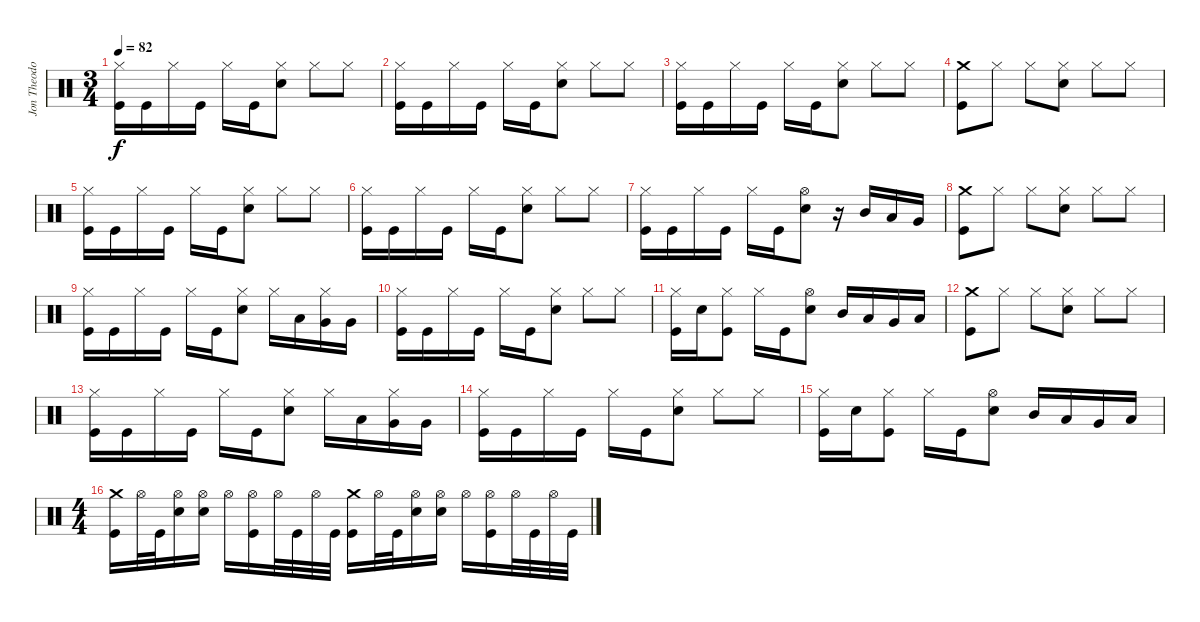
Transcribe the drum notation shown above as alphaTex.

\track ("Jon Theodore - Drums" "Jon Theodo") {instrument percussion}
\staff {score}
\articulation defaults
\ts (3 4)
\tempo 82
\clef neutral
\ks c
("Hi-Hat (closed)" "Kick (hit)").16{dy f} "Kick (hit)".16 "Hi-Hat (closed)".16 "Kick (hit)".16 "Hi-Hat (closed)".16 "Kick (hit)".16 ("Hi-Hat (closed)" "Snare (hit) 2").8 "Hi-Hat (closed)".8 "Hi-Hat (closed)".8 |
("Hi-Hat (closed)" "Kick (hit)").16 "Kick (hit)".16 "Hi-Hat (closed)".16 "Kick (hit)".16 "Hi-Hat (closed)".16 "Kick (hit)".16 ("Hi-Hat (closed)" "Snare (hit) 2").8 "Hi-Hat (closed)".8 "Hi-Hat (closed)".8 |
("Hi-Hat (closed)" "Kick (hit)").16 "Kick (hit)".16 "Hi-Hat (closed)".16 "Kick (hit)".16 "Hi-Hat (closed)".16 "Kick (hit)".16 ("Hi-Hat (closed)" "Snare (hit) 2").8 "Hi-Hat (closed)".8 "Hi-Hat (closed)".8 |
("Crash medium (hit)" "Kick (hit)").8 "Hi-Hat (closed)".8 "Hi-Hat (closed)".8 ("Hi-Hat (closed)" "Snare (hit) 2").8 "Hi-Hat (closed)".8 "Hi-Hat (closed)".8 |
("Hi-Hat (closed)" "Kick (hit)").16 "Kick (hit)".16 "Hi-Hat (closed)".16 "Kick (hit)".16 "Hi-Hat (closed)".16 "Kick (hit)".16 ("Hi-Hat (closed)" "Snare (hit) 2").8 "Hi-Hat (closed)".8 "Hi-Hat (closed)".8 |
("Hi-Hat (closed)" "Kick (hit)").16 "Kick (hit)".16 "Hi-Hat (closed)".16 "Kick (hit)".16 "Hi-Hat (closed)".16 "Kick (hit)".16 ("Hi-Hat (closed)" "Snare (hit) 2").8 "Hi-Hat (closed)".8 "Hi-Hat (closed)".8 |
("Hi-Hat (closed)" "Kick (hit)").16 "Kick (hit)".16 "Hi-Hat (closed)".16 "Kick (hit)".16 "Hi-Hat (closed)".16 "Kick (hit)".16 ("Hi-Hat (open)" "Snare (hit) 2").8 r.16 "Mid Tom (hit)".16 "Low Tom (hit)".16 "Very Low Tom (hit)".16 |
("Crash medium (hit)" "Kick (hit)").8 "Hi-Hat (closed)".8 "Hi-Hat (closed)".8 ("Hi-Hat (closed)" "Snare (hit) 2").8 "Hi-Hat (closed)".8 "Hi-Hat (closed)".8 |
("Hi-Hat (closed)" "Kick (hit)").16 "Kick (hit)".16 "Hi-Hat (closed)".16 "Kick (hit)".16 "Hi-Hat (closed)".16 "Kick (hit)".16 ("Hi-Hat (closed)" "Snare (hit) 2").8 "Hi-Hat (closed)".16 "Low Tom (hit)".16 ("Hi-Hat (closed)" "Very Low Tom (hit)").16 "Very Low Tom (hit)".16 |
("Hi-Hat (closed)" "Kick (hit)").16 "Kick (hit)".16 "Hi-Hat (closed)".16 "Kick (hit)".16 "Hi-Hat (closed)".16 "Kick (hit)".16 ("Hi-Hat (closed)" "Snare (hit) 2").8 "Hi-Hat (closed)".8 "Hi-Hat (closed)".8 |
("Hi-Hat (closed)" "Kick (hit)").16 "Snare (hit) 2".16 ("Hi-Hat (closed)" "Kick (hit)").8 "Hi-Hat (closed)".16 "Kick (hit)".16 ("Hi-Hat (open)" "Snare (hit) 2").8 "Mid Tom (hit)".16 "Low Tom (hit)".16 "Very Low Tom (hit)".16 "Low Tom (hit)".16 |
("Crash medium (hit)" "Kick (hit)").8 "Hi-Hat (closed)".8 "Hi-Hat (closed)".8 ("Hi-Hat (closed)" "Snare (hit) 2").8 "Hi-Hat (closed)".8 "Hi-Hat (closed)".8 |
("Hi-Hat (closed)" "Kick (hit)").16 "Kick (hit)".16 "Hi-Hat (closed)".16 "Kick (hit)".16 "Hi-Hat (closed)".16 "Kick (hit)".16 ("Hi-Hat (closed)" "Snare (hit) 2").8 "Hi-Hat (closed)".16 "Low Tom (hit)".16 ("Hi-Hat (closed)" "Very Low Tom (hit)").16 "Very Low Tom (hit)".16 |
("Hi-Hat (closed)" "Kick (hit)").16 "Kick (hit)".16 "Hi-Hat (closed)".16 "Kick (hit)".16 "Hi-Hat (closed)".16 "Kick (hit)".16 ("Hi-Hat (closed)" "Snare (hit) 2").8 "Hi-Hat (closed)".8 "Hi-Hat (closed)".8 |
("Hi-Hat (closed)" "Kick (hit)").16 "Snare (hit) 2".16 ("Hi-Hat (closed)" "Kick (hit)").8 "Hi-Hat (closed)".16 "Kick (hit)".16 ("Hi-Hat (open)" "Snare (hit) 2").8 "Mid Tom (hit)".16 "Low Tom (hit)".16 "Very Low Tom (hit)".16 "Low Tom (hit)".16 |
\ts (4 4)
("Crash medium (hit)" "Kick (hit)").16 "Hi-Hat (open)".32 "Kick (hit)".32 ("Hi-Hat (open)" "Snare (hit) 2").16 ("Hi-Hat (open)" "Snare (hit) 2").16 "Hi-Hat (open)".16 ("Hi-Hat (open)" "Kick (hit)").16 "Hi-Hat (open)".32 "Kick (hit)".32 "Hi-Hat (open)".32 "Kick (hit)".32 ("Crash medium (hit)" "Kick (hit)").16 "Hi-Hat (open)".32 "Kick (hit)".32 ("Hi-Hat (open)" "Snare (hit) 2").16 ("Hi-Hat (open)" "Snare (hit) 2").16 "Hi-Hat (open)".16 ("Hi-Hat (open)" "Kick (hit)").16 "Hi-Hat (open)".32 "Kick (hit)".32 "Hi-Hat (open)".32 "Kick (hit)".32
